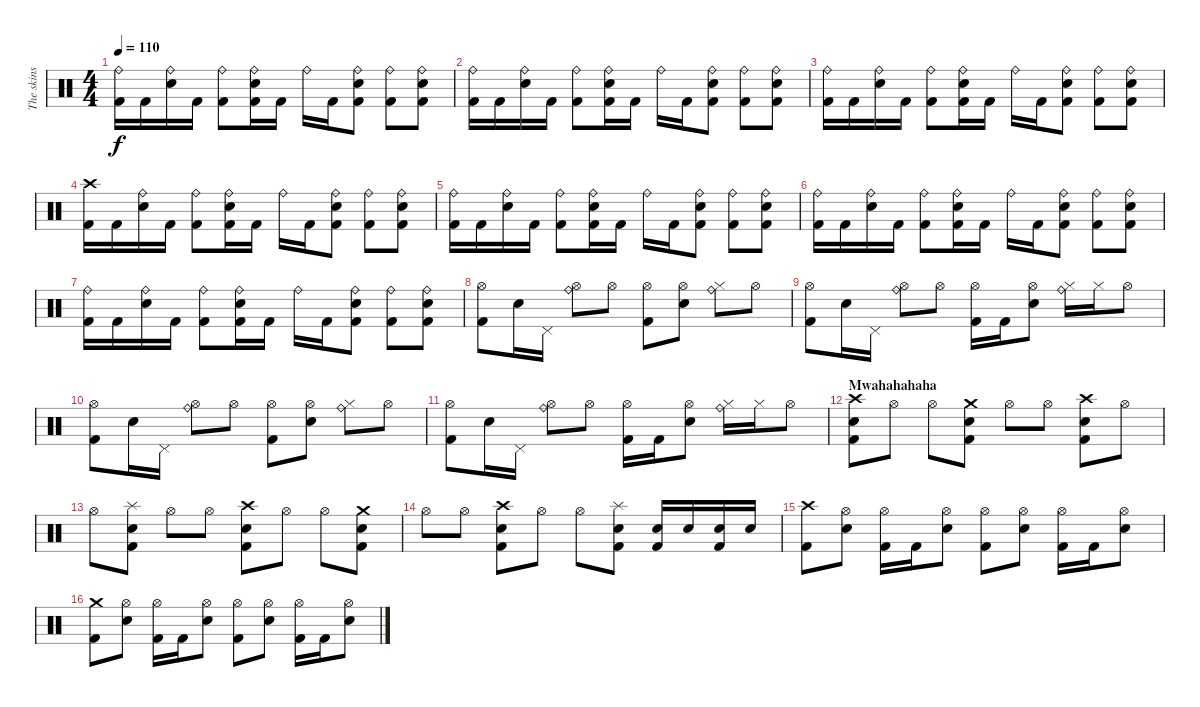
\track ("The skins" "The skins") {instrument percussion}
\staff {score}
\articulation defaults
\ts (4 4)
\tempo 110
\clef neutral
\ks c
("Ride (bell)" "Kick (hit) 2").16{dy f} "Kick (hit) 2".16 ("Ride (bell)" "Electric Snare (hit)").16 "Kick (hit) 2".16 ("Ride (bell)" "Kick (hit) 2").8 ("Ride (bell)" "Electric Snare (hit)" "Kick (hit) 2").16 "Kick (hit) 2".16 "Ride (bell)".16 "Kick (hit) 2".16 ("Ride (bell)" "Electric Snare (hit)" "Kick (hit) 2").8 ("Ride (bell)" "Kick (hit) 2").8 ("Ride (bell)" "Electric Snare (hit)" "Kick (hit) 2").8 |
("Ride (bell)" "Kick (hit) 2").16 "Kick (hit) 2".16 ("Ride (bell)" "Electric Snare (hit)").16 "Kick (hit) 2".16 ("Ride (bell)" "Kick (hit) 2").8 ("Ride (bell)" "Electric Snare (hit)" "Kick (hit) 2").16 "Kick (hit) 2".16 "Ride (bell)".16 "Kick (hit) 2".16 ("Ride (bell)" "Electric Snare (hit)" "Kick (hit) 2").8 ("Ride (bell)" "Kick (hit) 2").8 ("Ride (bell)" "Electric Snare (hit)" "Kick (hit) 2").8 |
("Ride (bell)" "Kick (hit) 2").16 "Kick (hit) 2".16 ("Ride (bell)" "Electric Snare (hit)").16 "Kick (hit) 2".16 ("Ride (bell)" "Kick (hit) 2").8 ("Ride (bell)" "Electric Snare (hit)" "Kick (hit) 2").16 "Kick (hit) 2".16 "Ride (bell)".16 "Kick (hit) 2".16 ("Ride (bell)" "Electric Snare (hit)" "Kick (hit) 2").8 ("Ride (bell)" "Kick (hit) 2").8 ("Ride (bell)" "Electric Snare (hit)" "Kick (hit) 2").8 |
("Crash high (hit)" "Kick (hit) 2").16 "Kick (hit) 2".16 ("Ride (bell)" "Electric Snare (hit)").16 "Kick (hit) 2".16 ("Ride (bell)" "Kick (hit) 2").8 ("Ride (bell)" "Electric Snare (hit)" "Kick (hit) 2").16 "Kick (hit) 2".16 "Ride (bell)".16 "Kick (hit) 2".16 ("Ride (bell)" "Electric Snare (hit)" "Kick (hit) 2").8 ("Ride (bell)" "Kick (hit) 2").8 ("Ride (bell)" "Electric Snare (hit)" "Kick (hit) 2").8 |
("Ride (bell)" "Kick (hit) 2").16 "Kick (hit) 2".16 ("Ride (bell)" "Electric Snare (hit)").16 "Kick (hit) 2".16 ("Ride (bell)" "Kick (hit) 2").8 ("Ride (bell)" "Electric Snare (hit)" "Kick (hit) 2").16 "Kick (hit) 2".16 "Ride (bell)".16 "Kick (hit) 2".16 ("Ride (bell)" "Electric Snare (hit)" "Kick (hit) 2").8 ("Ride (bell)" "Kick (hit) 2").8 ("Ride (bell)" "Electric Snare (hit)" "Kick (hit) 2").8 |
("Ride (bell)" "Kick (hit) 2").16 "Kick (hit) 2".16 ("Ride (bell)" "Electric Snare (hit)").16 "Kick (hit) 2".16 ("Ride (bell)" "Kick (hit) 2").8 ("Ride (bell)" "Electric Snare (hit)" "Kick (hit) 2").16 "Kick (hit) 2".16 "Ride (bell)".16 "Kick (hit) 2".16 ("Ride (bell)" "Electric Snare (hit)" "Kick (hit) 2").8 ("Ride (bell)" "Kick (hit) 2").8 ("Ride (bell)" "Electric Snare (hit)" "Kick (hit) 2").8 |
("Ride (bell)" "Kick (hit) 2").16 "Kick (hit) 2".16 ("Ride (bell)" "Electric Snare (hit)").16 "Kick (hit) 2".16 ("Ride (bell)" "Kick (hit) 2").8 ("Ride (bell)" "Electric Snare (hit)" "Kick (hit) 2").16 "Kick (hit) 2".16 "Ride (bell)".16 "Kick (hit) 2".16 ("Ride (bell)" "Electric Snare (hit)" "Kick (hit) 2").8 ("Ride (bell)" "Kick (hit) 2").8 ("Ride (bell)" "Electric Snare (hit)" "Kick (hit) 2").8 |
("Hi-Hat (open)" "Kick (hit) 2").8 "Electric Snare (hit)".16 "Pedal Hi-Hat (hit)".16 ("Ride (bell)" "Hi-Hat (open)").8 "Hi-Hat (open)".8 ("Hi-Hat (open)" "Kick (hit) 2").8 ("Hi-Hat (open)" "Electric Snare (hit)").8 ("Ride (bell)" "Hi-Hat (closed)").8 "Hi-Hat (open)".8 |
("Hi-Hat (open)" "Kick (hit) 2").8 "Electric Snare (hit)".16 "Pedal Hi-Hat (hit)".16 ("Ride (bell)" "Hi-Hat (open)").8 "Hi-Hat (open)".8 ("Hi-Hat (open)" "Kick (hit) 2").16 "Kick (hit) 2".16 ("Hi-Hat (open)" "Electric Snare (hit)").8 ("Ride (bell)" "Hi-Hat (closed)").16 "Hi-Hat (closed)".16 "Hi-Hat (open)".8 |
("Hi-Hat (open)" "Kick (hit) 2").8 "Electric Snare (hit)".16 "Pedal Hi-Hat (hit)".16 ("Ride (bell)" "Hi-Hat (open)").8 "Hi-Hat (open)".8 ("Hi-Hat (open)" "Kick (hit) 2").8 ("Hi-Hat (open)" "Electric Snare (hit)").8 ("Ride (bell)" "Hi-Hat (closed)").8 "Hi-Hat (open)".8 |
("Hi-Hat (open)" "Kick (hit) 2").8 "Electric Snare (hit)".16 "Pedal Hi-Hat (hit)".16 ("Ride (bell)" "Hi-Hat (open)").8 "Hi-Hat (open)".8 ("Hi-Hat (open)" "Kick (hit) 2").16 "Kick (hit) 2".16 ("Hi-Hat (open)" "Electric Snare (hit)").8 ("Ride (bell)" "Hi-Hat (closed)").16 "Hi-Hat (closed)".16 "Hi-Hat (open)".8 |
\section ("" "Mwahahahaha")
("Crash high (hit)" "Electric Snare (hit)" "Kick (hit) 2").8 "Hi-Hat (open)".8 "Hi-Hat (open)".8 ("Crash medium (hit)" "Electric Snare (hit)" "Kick (hit) 2").8 "Hi-Hat (open)".8 "Hi-Hat (open)".8 ("Crash high (hit)" "Electric Snare (hit)" "Kick (hit) 2").8 "Hi-Hat (open)".8 |
"Hi-Hat (open)".8 ("Splash (hit)" "Electric Snare (hit)" "Kick (hit) 2").8 "Hi-Hat (open)".8 "Hi-Hat (open)".8 ("Crash high (hit)" "Electric Snare (hit)" "Kick (hit) 2").8 "Hi-Hat (open)".8 "Hi-Hat (open)".8 ("Crash medium (hit)" "Electric Snare (hit)" "Kick (hit) 2").8 |
"Hi-Hat (open)".8 "Hi-Hat (open)".8 ("Crash high (hit)" "Electric Snare (hit)" "Kick (hit) 2").8 "Hi-Hat (open)".8 "Hi-Hat (open)".8 ("Splash (hit)" "Electric Snare (hit)" "Kick (hit) 2").8 ("Electric Snare (hit)" "Kick (hit) 2").16 "Electric Snare (hit)".16 ("Electric Snare (hit)" "Kick (hit) 2").16 "Electric Snare (hit)".16 |
("Crash high (hit)" "Kick (hit) 2").8 ("Hi-Hat (open)" "Electric Snare (hit)").8 ("Hi-Hat (open)" "Kick (hit) 2").16 "Kick (hit) 2".16 ("Hi-Hat (open)" "Electric Snare (hit)").8 ("Hi-Hat (open)" "Kick (hit) 2").8 ("Hi-Hat (open)" "Electric Snare (hit)").8 ("Hi-Hat (open)" "Kick (hit) 2").16 "Kick (hit) 2".16 ("Hi-Hat (open)" "Electric Snare (hit)").8 |
("Crash medium (hit)" "Kick (hit) 2").8 ("Hi-Hat (open)" "Electric Snare (hit)").8 ("Hi-Hat (open)" "Kick (hit) 2").16 "Kick (hit) 2".16 ("Hi-Hat (open)" "Electric Snare (hit)").8 ("Hi-Hat (open)" "Kick (hit) 2").8 ("Hi-Hat (open)" "Electric Snare (hit)").8 ("Hi-Hat (open)" "Kick (hit) 2").16 "Kick (hit) 2".16 ("Hi-Hat (open)" "Electric Snare (hit)").8
